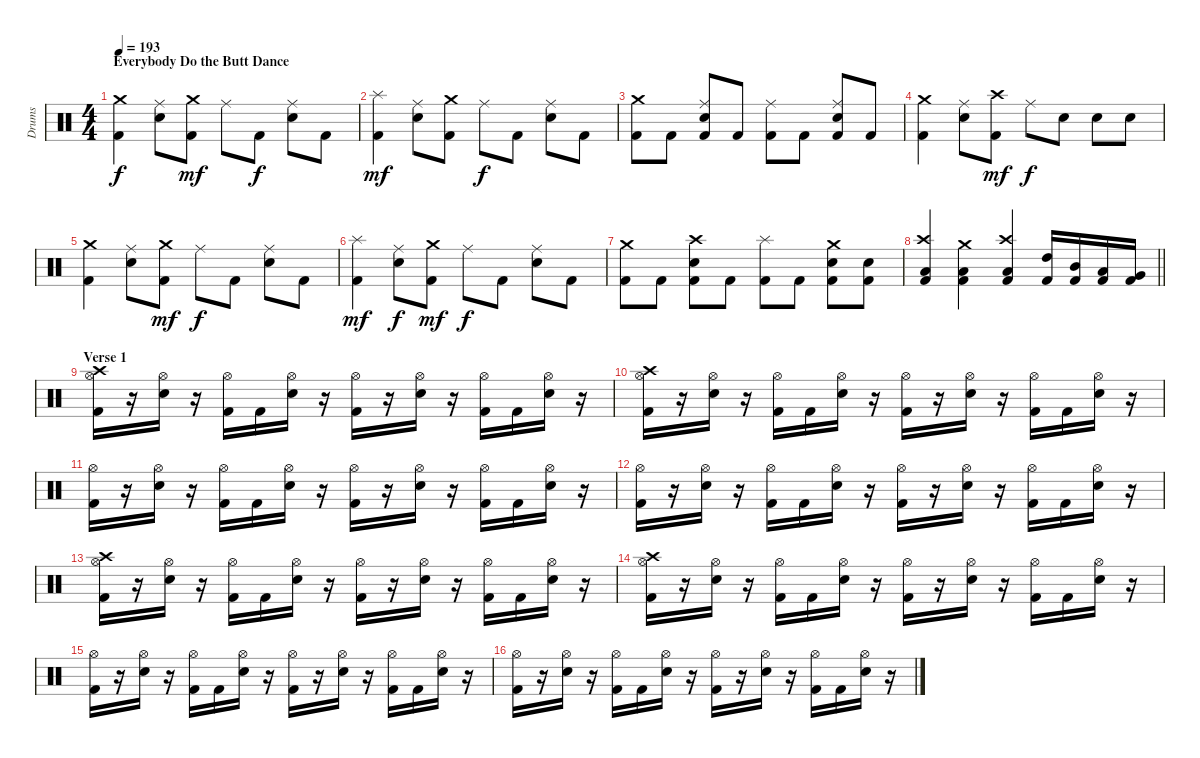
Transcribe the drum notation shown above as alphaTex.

\track ("Drums" "Drums") {instrument percussion}
\staff {score}
\articulation defaults
\ts (4 4)
\section ("" "Everybody Do the Butt Dance")
\tempo 193
\clef neutral
\ks c
("Crash medium (hit)" "Kick (hit) 2").4{dy f} ("Ride (middle)" "Snare (hit) 2").8 ("Crash medium (hit)" "Kick (hit) 2").8{dy mf} "Ride (middle)".8 "Kick (hit) 2".8{dy f} ("Ride (middle)" "Snare (hit) 2").8 "Kick (hit) 2".8 |
("Splash (hit)" "Kick (hit) 2").4{dy mf} ("Ride (middle)" "Snare (hit) 2").8 ("Crash medium (hit)" "Kick (hit) 2").8 "Ride (middle)".8{dy f} "Kick (hit) 2".8 ("Ride (middle)" "Snare (hit) 2").8 "Kick (hit) 2".8 |
("Crash medium (hit)" "Kick (hit) 2").8 "Kick (hit) 2".8 ("Ride (middle)" "Snare (hit) 2" "Kick (hit) 2").8 "Kick (hit) 2".8 ("Ride (middle)" "Kick (hit) 2").8 "Kick (hit) 2".8 ("Ride (middle)" "Snare (hit) 2" "Kick (hit) 2").8 "Kick (hit) 2".8 |
("Crash medium (hit)" "Kick (hit) 2").4 ("Ride (middle)" "Snare (hit) 2").8 ("Crash high (hit)" "Kick (hit) 2").8{dy mf} "Ride (middle)".8{dy f} "Snare (hit) 2".8 "Snare (hit) 2".8 "Snare (hit) 2".8 |
("Crash medium (hit)" "Kick (hit) 2").4 ("Ride (middle)" "Snare (hit) 2").8 ("Crash medium (hit)" "Kick (hit) 2").8{dy mf} "Ride (middle)".8{dy f} "Kick (hit) 2".8 ("Ride (middle)" "Snare (hit) 2").8 "Kick (hit) 2".8 |
("Splash (hit)" "Kick (hit) 2").4{dy mf} ("Ride (middle)" "Snare (hit) 2").8{dy f} ("Crash medium (hit)" "Kick (hit) 2").8{dy mf} "Ride (middle)".8{dy f} "Kick (hit) 2".8 ("Ride (middle)" "Snare (hit) 2").8 "Kick (hit) 2".8 |
("Crash medium (hit)" "Kick (hit) 2").8 "Kick (hit) 2".8 ("Crash high (hit)" "Snare (hit) 2" "Kick (hit) 2").8 "Kick (hit) 2".8 ("Splash (hit)" "Kick (hit) 2").8 "Kick (hit) 2".8 ("Crash medium (hit)" "Snare (hit) 2" "Kick (hit) 2").8 ("Snare (hit) 2" "Kick (hit) 2").8 |
\barLineRight lightlight
("Crash high (hit)" "Low Floor Tom (hit)" "Kick (hit) 2").4 ("Crash medium (hit)" "Low Floor Tom (hit)" "Kick (hit) 2").4 ("Crash high (hit)" "Low Floor Tom (hit)" "Kick (hit) 2").4 ("High Tom (hit)" "Kick (hit) 2").16 ("Mid Tom (hit)" "Kick (hit) 2").16 ("Low Tom (hit)" "Kick (hit) 2").16 ("Very Low Tom (hit)" "Kick (hit) 2").16 |
\section ("" "Verse 1")
("Crash high (hit)" "Hi-Hat (open)" "Kick (hit) 2").16 r.16 ("Hi-Hat (open)" "Snare (hit) 2").16 r.16 ("Hi-Hat (open)" "Kick (hit) 2").16 "Kick (hit) 2".16 ("Hi-Hat (open)" "Snare (hit) 2").16 r.16 ("Hi-Hat (open)" "Kick (hit) 2").16 r.16 ("Hi-Hat (open)" "Snare (hit) 2").16 r.16 ("Hi-Hat (open)" "Kick (hit) 2").16 "Kick (hit) 2".16 ("Hi-Hat (open)" "Snare (hit) 2").16 r.16 |
("Crash high (hit)" "Hi-Hat (open)" "Kick (hit) 2").16 r.16 ("Hi-Hat (open)" "Snare (hit) 2").16 r.16 ("Hi-Hat (open)" "Kick (hit) 2").16 "Kick (hit) 2".16 ("Hi-Hat (open)" "Snare (hit) 2").16 r.16 ("Hi-Hat (open)" "Kick (hit) 2").16 r.16 ("Hi-Hat (open)" "Snare (hit) 2").16 r.16 ("Hi-Hat (open)" "Kick (hit) 2").16 "Kick (hit) 2".16 ("Hi-Hat (open)" "Snare (hit) 2").16 r.16 |
("Hi-Hat (open)" "Kick (hit) 2").16 r.16 ("Hi-Hat (open)" "Snare (hit) 2").16 r.16 ("Hi-Hat (open)" "Kick (hit) 2").16 "Kick (hit) 2".16 ("Hi-Hat (open)" "Snare (hit) 2").16 r.16 ("Hi-Hat (open)" "Kick (hit) 2").16 r.16 ("Hi-Hat (open)" "Snare (hit) 2").16 r.16 ("Hi-Hat (open)" "Kick (hit) 2").16 "Kick (hit) 2".16 ("Hi-Hat (open)" "Snare (hit) 2").16 r.16 |
("Hi-Hat (open)" "Kick (hit) 2").16 r.16 ("Hi-Hat (open)" "Snare (hit) 2").16 r.16 ("Hi-Hat (open)" "Kick (hit) 2").16 "Kick (hit) 2".16 ("Hi-Hat (open)" "Snare (hit) 2").16 r.16 ("Hi-Hat (open)" "Kick (hit) 2").16 r.16 ("Hi-Hat (open)" "Snare (hit) 2").16 r.16 ("Hi-Hat (open)" "Kick (hit) 2").16 "Kick (hit) 2".16 ("Hi-Hat (open)" "Snare (hit) 2").16 r.16 |
("Crash high (hit)" "Hi-Hat (open)" "Kick (hit) 2").16 r.16 ("Hi-Hat (open)" "Snare (hit) 2").16 r.16 ("Hi-Hat (open)" "Kick (hit) 2").16 "Kick (hit) 2".16 ("Hi-Hat (open)" "Snare (hit) 2").16 r.16 ("Hi-Hat (open)" "Kick (hit) 2").16 r.16 ("Hi-Hat (open)" "Snare (hit) 2").16 r.16 ("Hi-Hat (open)" "Kick (hit) 2").16 "Kick (hit) 2".16 ("Hi-Hat (open)" "Snare (hit) 2").16 r.16 |
("Crash high (hit)" "Hi-Hat (open)" "Kick (hit) 2").16 r.16 ("Hi-Hat (open)" "Snare (hit) 2").16 r.16 ("Hi-Hat (open)" "Kick (hit) 2").16 "Kick (hit) 2".16 ("Hi-Hat (open)" "Snare (hit) 2").16 r.16 ("Hi-Hat (open)" "Kick (hit) 2").16 r.16 ("Hi-Hat (open)" "Snare (hit) 2").16 r.16 ("Hi-Hat (open)" "Kick (hit) 2").16 "Kick (hit) 2".16 ("Hi-Hat (open)" "Snare (hit) 2").16 r.16 |
("Hi-Hat (open)" "Kick (hit) 2").16 r.16 ("Hi-Hat (open)" "Snare (hit) 2").16 r.16 ("Hi-Hat (open)" "Kick (hit) 2").16 "Kick (hit) 2".16 ("Hi-Hat (open)" "Snare (hit) 2").16 r.16 ("Hi-Hat (open)" "Kick (hit) 2").16 r.16 ("Hi-Hat (open)" "Snare (hit) 2").16 r.16 ("Hi-Hat (open)" "Kick (hit) 2").16 "Kick (hit) 2".16 ("Hi-Hat (open)" "Snare (hit) 2").16 r.16 |
("Hi-Hat (open)" "Kick (hit) 2").16 r.16 ("Hi-Hat (open)" "Snare (hit) 2").16 r.16 ("Hi-Hat (open)" "Kick (hit) 2").16 "Kick (hit) 2".16 ("Hi-Hat (open)" "Snare (hit) 2").16 r.16 ("Hi-Hat (open)" "Kick (hit) 2").16 r.16 ("Hi-Hat (open)" "Snare (hit) 2").16 r.16 ("Hi-Hat (open)" "Kick (hit) 2").16 "Kick (hit) 2".16 ("Hi-Hat (open)" "Snare (hit) 2").16 r.16
